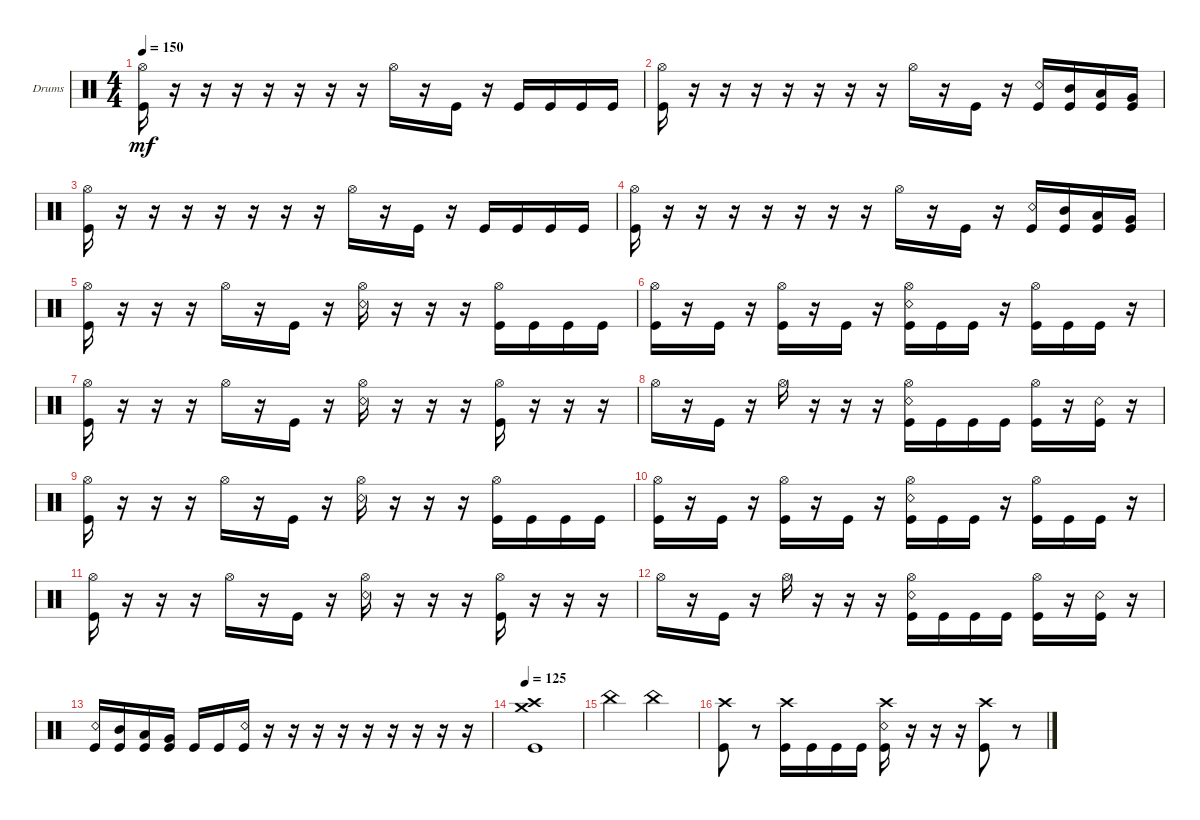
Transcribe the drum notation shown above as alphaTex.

\bracketExtendMode groupsimilarinstruments
\firstSystemTrackNameOrientation horizontal
\otherSystemsTrackNameOrientation horizontal
\track ("Drumkit" "Drums") {instrument percussion}
\staff {score}
\articulation defaults
\ts (4 4)
\tempo 150
\clef neutral
\ks c
("Hi-Hat (open)" "Kick (hit)").16{dy mf} r.16 r.16 r.16 r.16 r.16 r.16 r.16 "Hi-Hat (open)".16 r.16 "Kick (hit)".16 r.16 "Kick (hit)".16 "Kick (hit)".16 "Kick (hit)".16 "Kick (hit)".16 |
("Hi-Hat (open)" "Kick (hit)").16 r.16 r.16 r.16 r.16 r.16 r.16 r.16 "Hi-Hat (open)".16 r.16 "Kick (hit)".16 r.16 ("Kick (hit)" "Snare (rim shot)").16 ("Kick (hit)" "Mid Tom (hit)").16 ("Kick (hit)" "Low Tom (hit)").16 ("Kick (hit)" "Very Low Tom (hit)").16 |
("Hi-Hat (open)" "Kick (hit)").16 r.16 r.16 r.16 r.16 r.16 r.16 r.16 "Hi-Hat (open)".16 r.16 "Kick (hit)".16 r.16 "Kick (hit)".16 "Kick (hit)".16 "Kick (hit)".16 "Kick (hit)".16 |
("Hi-Hat (open)" "Kick (hit)").16 r.16 r.16 r.16 r.16 r.16 r.16 r.16 "Hi-Hat (open)".16 r.16 "Kick (hit)".16 r.16 ("Kick (hit)" "Snare (rim shot)").16 ("Kick (hit)" "Mid Tom (hit)").16 ("Kick (hit)" "Low Tom (hit)").16 ("Kick (hit)" "Very Low Tom (hit)").16 |
("Kick (hit)" "Hi-Hat (open)").16 r.16 r.16 r.16 "Hi-Hat (open)".16 r.16 "Kick (hit)".16 r.16 ("Hi-Hat (open)" "Snare (rim shot)").16 r.16 r.16 r.16 ("Hi-Hat (open)" "Kick (hit)").16 "Kick (hit)".16 "Kick (hit)".16 "Kick (hit)".16 |
("Kick (hit)" "Hi-Hat (open)").16 r.16 "Kick (hit)".16 r.16 ("Kick (hit)" "Hi-Hat (open)").16 r.16 "Kick (hit)".16 r.16 ("Hi-Hat (open)" "Kick (hit)" "Snare (rim shot)").16 "Kick (hit)".16 "Kick (hit)".16 r.16 ("Hi-Hat (open)" "Kick (hit)").16 "Kick (hit)".16 "Kick (hit)".16 r.16 |
("Kick (hit)" "Hi-Hat (open)").16 r.16 r.16 r.16 "Hi-Hat (open)".16 r.16 "Kick (hit)".16 r.16 ("Hi-Hat (open)" "Snare (rim shot)").16 r.16 r.16 r.16 ("Hi-Hat (open)" "Kick (hit)").16 r.16 r.16 r.16 |
"Hi-Hat (open)".16 r.16 "Kick (hit)".16 r.16 "Hi-Hat (open)".16 r.16 r.16 r.16 ("Hi-Hat (open)" "Snare (rim shot)" "Kick (hit)").16 "Kick (hit)".16 "Kick (hit)".16 "Kick (hit)".16 ("Hi-Hat (open)" "Kick (hit)").16 r.16 ("Kick (hit)" "Snare (rim shot)").16 r.16 |
("Kick (hit)" "Hi-Hat (open)").16 r.16 r.16 r.16 "Hi-Hat (open)".16 r.16 "Kick (hit)".16 r.16 ("Hi-Hat (open)" "Snare (rim shot)").16 r.16 r.16 r.16 ("Hi-Hat (open)" "Kick (hit)").16 "Kick (hit)".16 "Kick (hit)".16 "Kick (hit)".16 |
("Kick (hit)" "Hi-Hat (open)").16 r.16 "Kick (hit)".16 r.16 ("Kick (hit)" "Hi-Hat (open)").16 r.16 "Kick (hit)".16 r.16 ("Hi-Hat (open)" "Kick (hit)" "Snare (rim shot)").16 "Kick (hit)".16 "Kick (hit)".16 r.16 ("Hi-Hat (open)" "Kick (hit)").16 "Kick (hit)".16 "Kick (hit)".16 r.16 |
("Kick (hit)" "Hi-Hat (open)").16 r.16 r.16 r.16 "Hi-Hat (open)".16 r.16 "Kick (hit)".16 r.16 ("Hi-Hat (open)" "Snare (rim shot)").16 r.16 r.16 r.16 ("Hi-Hat (open)" "Kick (hit)").16 r.16 r.16 r.16 |
"Hi-Hat (open)".16 r.16 "Kick (hit)".16 r.16 "Hi-Hat (open)".16 r.16 r.16 r.16 ("Hi-Hat (open)" "Snare (rim shot)" "Kick (hit)").16 "Kick (hit)".16 "Kick (hit)".16 "Kick (hit)".16 ("Hi-Hat (open)" "Kick (hit)").16 r.16 ("Kick (hit)" "Snare (rim shot)").16 r.16 |
("Kick (hit)" "Snare (rim shot)").16 ("Kick (hit)" "Mid Tom (hit)").16 ("Low Tom (hit)" "Kick (hit)").16 ("Kick (hit)" "Very Low Tom (hit)").16 "Kick (hit)".16 "Kick (hit)".16 ("Kick (hit)" "Snare (rim shot)").16 r.16 r.16 r.16 r.16 r.16 r.16 r.16 r.16 r.16 |
\tempo 125
("Kick (hit)" "Crash medium (hit)" "Crash high (hit)").1 |
"China (hit)".2 "China (hit)".2 |
("Kick (hit)" "Crash high (hit)").8 r.8 ("Kick (hit)" "Crash high (hit)").16 "Kick (hit)".16 "Kick (hit)".16 "Kick (hit)".16 ("Kick (hit)" "Snare (rim shot)" "Crash high (hit)").16 r.16 r.16 r.16 ("Kick (hit)" "Crash high (hit)").8 r.8
